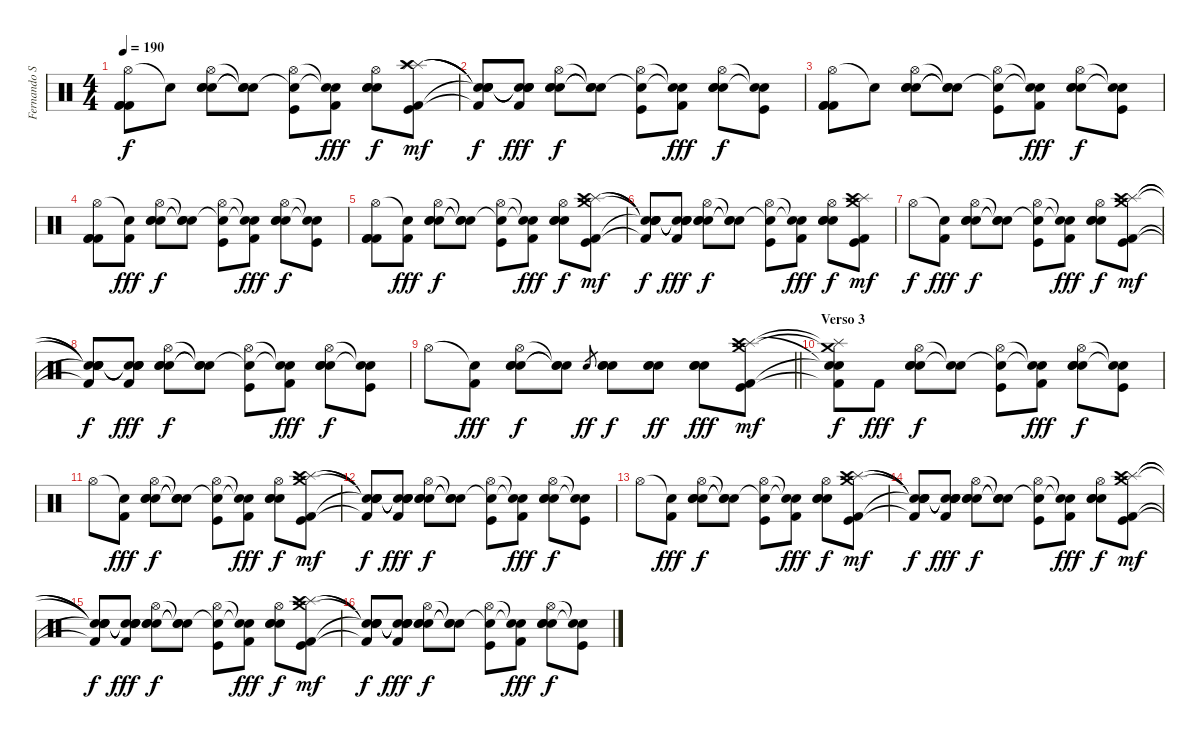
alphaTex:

\track ("Fernando Sarcella" "Fernando S") {instrument percussion}
\staff {score}
\articulation defaults
\ts (4 4)
\tempo 190
\clef neutral
\ks c
("Hi-Hat (open)" "Kick (hit) 2" "Kick (hit) 2" "Kick (hit) 2").8{dy f} "Snare (hit)"{t}.8 ("Hi-Hat (open)" "Electric Snare (hit)" "Electric Snare (hit)" "Electric Snare (hit)").8 ("Snare (hit)"{t} "Snare (hit)"{t} "Snare (hit)"{t}).8 ("Hi-Hat (open)" "Snare (hit)"{t} "Kick (hit)").8 ("Snare (hit)"{t} "Snare (hit)"{t} "Kick (hit) 2").8{dy fff} ("Hi-Hat (open)" "Electric Snare (hit)" "Electric Snare (hit)" "Electric Snare (hit)").8{dy f} ("Splash (hit)" "Splash (hit)" "Crash high (hit)" "Kick (hit) 2" "Kick (hit)").8{dy mf} |
("Snare (hit)"{t} "Snare (hit)"{t} "Snare (hit)"{t} "Snare (hit)"{t} "Kick (hit) 2"{t}).8{dy f} ("Snare (hit)"{t} "Snare (hit)"{t} "Snare (hit)"{t} "Snare (hit)"{t} "Kick (hit) 2").8{dy fff} ("Hi-Hat (open)" "Electric Snare (hit)" "Electric Snare (hit)" "Electric Snare (hit)").8{dy f} ("Snare (hit)"{t} "Snare (hit)"{t} "Snare (hit)"{t}).8 ("Hi-Hat (open)" "Snare (hit)"{t} "Kick (hit)").8 ("Snare (hit)"{t} "Snare (hit)"{t} "Kick (hit) 2").8{dy fff} ("Hi-Hat (open)" "Electric Snare (hit)" "Electric Snare (hit)" "Electric Snare (hit)").8{dy f} ("Snare (hit)"{t} "Snare (hit)"{t} "Kick (hit)").8 |
("Hi-Hat (open)" "Kick (hit) 2" "Kick (hit) 2" "Kick (hit) 2").8 "Snare (hit)"{t}.8 ("Hi-Hat (open)" "Electric Snare (hit)" "Electric Snare (hit)" "Electric Snare (hit)").8 ("Snare (hit)"{t} "Snare (hit)"{t} "Snare (hit)"{t}).8 ("Hi-Hat (open)" "Snare (hit)"{t} "Kick (hit)").8 ("Snare (hit)"{t} "Snare (hit)"{t} "Kick (hit) 2").8{dy fff} ("Hi-Hat (open)" "Electric Snare (hit)" "Electric Snare (hit)" "Electric Snare (hit)").8{dy f} ("Snare (hit)"{t} "Snare (hit)"{t} "Kick (hit)").8 |
("Hi-Hat (open)" "Kick (hit) 2" "Kick (hit) 2" "Kick (hit) 2").8 ("Snare (hit)"{t} "Kick (hit) 2").8{dy fff} ("Hi-Hat (open)" "Electric Snare (hit)" "Electric Snare (hit)" "Electric Snare (hit)").8{dy f} ("Snare (hit)"{t} "Snare (hit)"{t} "Snare (hit)"{t}).8 ("Hi-Hat (open)" "Snare (hit)"{t} "Kick (hit)").8 ("Snare (hit)"{t} "Snare (hit)"{t} "Kick (hit) 2").8{dy fff} ("Hi-Hat (open)" "Electric Snare (hit)" "Electric Snare (hit)" "Electric Snare (hit)").8{dy f} ("Snare (hit)"{t} "Snare (hit)"{t} "Kick (hit)").8 |
("Hi-Hat (open)" "Kick (hit) 2" "Kick (hit) 2" "Kick (hit) 2").8 ("Snare (hit)"{t} "Kick (hit) 2").8{dy fff} ("Hi-Hat (open)" "Electric Snare (hit)" "Electric Snare (hit)" "Electric Snare (hit)").8{dy f} ("Snare (hit)"{t} "Snare (hit)"{t} "Snare (hit)"{t}).8 ("Hi-Hat (open)" "Snare (hit)"{t} "Kick (hit)").8 ("Snare (hit)"{t} "Snare (hit)"{t} "Kick (hit) 2").8{dy fff} ("Hi-Hat (open)" "Electric Snare (hit)" "Electric Snare (hit)" "Electric Snare (hit)").8{dy f} ("Crash medium (hit)" "Splash (hit)" "Crash high (hit)" "Kick (hit) 2" "Kick (hit)").8{dy mf} |
("Snare (hit)"{t} "Snare (hit)"{t} "Snare (hit)"{t} "Snare (hit)"{t} "Kick (hit) 2"{t}).8{dy f} ("Snare (hit)"{t} "Snare (hit)"{t} "Snare (hit)"{t} "Snare (hit)"{t} "Kick (hit) 2").8{dy fff} ("Hi-Hat (open)" "Electric Snare (hit)" "Electric Snare (hit)" "Electric Snare (hit)").8{dy f} ("Snare (hit)"{t} "Snare (hit)"{t} "Snare (hit)"{t}).8 ("Hi-Hat (open)" "Snare (hit)"{t} "Kick (hit)").8 ("Snare (hit)"{t} "Snare (hit)"{t} "Kick (hit) 2").8{dy fff} ("Hi-Hat (open)" "Electric Snare (hit)" "Electric Snare (hit)" "Electric Snare (hit)").8{dy f} ("Crash medium (hit)" "Splash (hit)" "Crash high (hit)" "Kick (hit) 2" "Kick (hit)").8{dy mf} |
"Hi-Hat (open)".8{dy f} ("Snare (hit)"{t} "Kick (hit) 2").8{dy fff} ("Hi-Hat (open)" "Electric Snare (hit)" "Electric Snare (hit)" "Electric Snare (hit)").8{dy f} ("Snare (hit)"{t} "Snare (hit)"{t} "Snare (hit)"{t}).8 ("Hi-Hat (open)" "Snare (hit)"{t} "Kick (hit)").8 ("Snare (hit)"{t} "Snare (hit)"{t} "Kick (hit) 2").8{dy fff} ("Hi-Hat (open)" "Electric Snare (hit)" "Electric Snare (hit)" "Electric Snare (hit)").8{dy f} ("Crash medium (hit)" "Splash (hit)" "Crash high (hit)" "Kick (hit) 2" "Kick (hit)").8{dy mf} |
("Snare (hit)"{t} "Snare (hit)"{t} "Snare (hit)"{t} "Snare (hit)"{t} "Kick (hit) 2"{t}).8{dy f} ("Snare (hit)"{t} "Snare (hit)"{t} "Snare (hit)"{t} "Snare (hit)"{t} "Kick (hit) 2").8{dy fff} ("Hi-Hat (open)" "Electric Snare (hit)" "Electric Snare (hit)" "Electric Snare (hit)").8{dy f} ("Snare (hit)"{t} "Snare (hit)"{t} "Snare (hit)"{t}).8 ("Hi-Hat (open)" "Snare (hit)"{t} "Kick (hit)").8 ("Snare (hit)"{t} "Snare (hit)"{t} "Kick (hit) 2").8{dy fff} ("Hi-Hat (open)" "Electric Snare (hit)" "Electric Snare (hit)" "Electric Snare (hit)").8{dy f} ("Snare (hit)"{t} "Snare (hit)"{t} "Kick (hit)").8 |
\barLineRight lightlight "Hi-Hat (open)".8
("Snare (hit)"{t} "Kick (hit) 2").8{dy fff} ("Hi-Hat (open)" "Electric Snare (hit)" "Electric Snare (hit)" "Electric Snare (hit)").8{dy f} ("Snare (hit)"{t} "Snare (hit)"{t} "Snare (hit)"{t}).8 "Electric Snare (hit)".8{gr dy ff} ("Electric Snare (hit)" "Electric Snare (hit)" "Electric Snare (hit)").8{dy f} ("Electric Snare (hit)" "Electric Snare (hit)" "Electric Snare (hit)").8{dy ff} ("Electric Snare (hit)" "Electric Snare (hit)" "Electric Snare (hit)").8{dy fff} ("Crash medium (hit)" "Splash (hit)" "Crash high (hit)" "Kick (hit) 2" "Kick (hit)").8{dy mf} |
\section ("" "Verso 3")
("Crash medium (hit)"{t} "Splash (hit)"{t} "Snare (hit)"{t} "Snare (hit)"{t} "Kick (hit) 2"{t}).8{dy f} "Kick (hit) 2".8{dy fff} ("Hi-Hat (open)" "Electric Snare (hit)" "Electric Snare (hit)" "Electric Snare (hit)").8{dy f} ("Snare (hit)"{t} "Snare (hit)"{t}).8 ("Hi-Hat (open)" "Snare (hit)"{t} "Kick (hit)").8 ("Snare (hit)"{t} "Snare (hit)"{t} "Kick (hit) 2").8{dy fff} ("Hi-Hat (open)" "Electric Snare (hit)" "Electric Snare (hit)" "Electric Snare (hit)").8{dy f} ("Snare (hit)"{t} "Snare (hit)"{t} "Kick (hit)").8 |
"Hi-Hat (open)".8 ("Snare (hit)"{t} "Kick (hit) 2").8{dy fff} ("Hi-Hat (open)" "Electric Snare (hit)" "Electric Snare (hit)" "Electric Snare (hit)").8{dy f} ("Snare (hit)"{t} "Snare (hit)"{t} "Snare (hit)"{t}).8 ("Hi-Hat (open)" "Snare (hit)"{t} "Kick (hit)").8 ("Snare (hit)"{t} "Snare (hit)"{t} "Kick (hit) 2").8{dy fff} ("Hi-Hat (open)" "Electric Snare (hit)" "Electric Snare (hit)" "Electric Snare (hit)").8{dy f} ("Crash medium (hit)" "Splash (hit)" "Crash high (hit)" "Kick (hit) 2" "Kick (hit)").8{dy mf} |
("Snare (hit)"{t} "Snare (hit)"{t} "Snare (hit)"{t} "Snare (hit)"{t} "Kick (hit) 2"{t}).8{dy f} ("Snare (hit)"{t} "Snare (hit)"{t} "Snare (hit)"{t} "Snare (hit)"{t} "Kick (hit) 2").8{dy fff} ("Hi-Hat (open)" "Electric Snare (hit)" "Electric Snare (hit)" "Electric Snare (hit)").8{dy f} ("Snare (hit)"{t} "Snare (hit)"{t} "Snare (hit)"{t}).8 ("Hi-Hat (open)" "Snare (hit)"{t} "Kick (hit)").8 ("Snare (hit)"{t} "Snare (hit)"{t} "Kick (hit) 2").8{dy fff} ("Hi-Hat (open)" "Electric Snare (hit)" "Electric Snare (hit)" "Electric Snare (hit)").8{dy f} ("Snare (hit)"{t} "Snare (hit)"{t} "Kick (hit)").8 |
"Hi-Hat (open)".8 ("Snare (hit)"{t} "Kick (hit) 2").8{dy fff} ("Hi-Hat (open)" "Electric Snare (hit)" "Electric Snare (hit)" "Electric Snare (hit)").8{dy f} ("Snare (hit)"{t} "Snare (hit)"{t} "Snare (hit)"{t}).8 ("Hi-Hat (open)" "Snare (hit)"{t} "Kick (hit)").8 ("Snare (hit)"{t} "Snare (hit)"{t} "Kick (hit) 2").8{dy fff} ("Hi-Hat (open)" "Electric Snare (hit)" "Electric Snare (hit)" "Electric Snare (hit)").8{dy f} ("Crash medium (hit)" "Splash (hit)" "Crash high (hit)" "Kick (hit) 2" "Kick (hit)").8{dy mf} |
("Snare (hit)"{t} "Snare (hit)"{t} "Snare (hit)"{t} "Snare (hit)"{t} "Kick (hit) 2"{t}).8{dy f} ("Snare (hit)"{t} "Snare (hit)"{t} "Snare (hit)"{t} "Snare (hit)"{t} "Kick (hit) 2").8{dy fff} ("Hi-Hat (open)" "Electric Snare (hit)" "Electric Snare (hit)" "Electric Snare (hit)").8{dy f} ("Snare (hit)"{t} "Snare (hit)"{t} "Snare (hit)"{t}).8 ("Hi-Hat (open)" "Snare (hit)"{t} "Kick (hit)").8 ("Snare (hit)"{t} "Snare (hit)"{t} "Kick (hit) 2").8{dy fff} ("Hi-Hat (open)" "Electric Snare (hit)" "Electric Snare (hit)" "Electric Snare (hit)").8{dy f} ("Crash medium (hit)" "Splash (hit)" "Crash high (hit)" "Kick (hit) 2" "Kick (hit)").8{dy mf} |
("Snare (hit)"{t} "Snare (hit)"{t} "Snare (hit)"{t} "Snare (hit)"{t} "Kick (hit) 2"{t}).8{dy f} ("Snare (hit)"{t} "Snare (hit)"{t} "Snare (hit)"{t} "Snare (hit)"{t} "Kick (hit) 2").8{dy fff} ("Hi-Hat (open)" "Electric Snare (hit)" "Electric Snare (hit)" "Electric Snare (hit)").8{dy f} ("Snare (hit)"{t} "Snare (hit)"{t} "Snare (hit)"{t}).8 ("Hi-Hat (open)" "Snare (hit)"{t} "Kick (hit)").8 ("Snare (hit)"{t} "Snare (hit)"{t} "Kick (hit) 2").8{dy fff} ("Hi-Hat (open)" "Electric Snare (hit)" "Electric Snare (hit)" "Electric Snare (hit)").8{dy f} ("Crash medium (hit)" "Splash (hit)" "Crash high (hit)" "Kick (hit) 2" "Kick (hit)").8{dy mf} |
("Snare (hit)"{t} "Snare (hit)"{t} "Snare (hit)"{t} "Snare (hit)"{t} "Kick (hit) 2"{t}).8{dy f} ("Snare (hit)"{t} "Snare (hit)"{t} "Snare (hit)"{t} "Snare (hit)"{t} "Kick (hit) 2").8{dy fff} ("Hi-Hat (open)" "Electric Snare (hit)" "Electric Snare (hit)" "Electric Snare (hit)").8{dy f} ("Snare (hit)"{t} "Snare (hit)"{t} "Snare (hit)"{t}).8 ("Hi-Hat (open)" "Snare (hit)"{t} "Kick (hit)").8 ("Snare (hit)"{t} "Snare (hit)"{t} "Kick (hit) 2").8{dy fff} ("Hi-Hat (open)" "Electric Snare (hit)" "Electric Snare (hit)" "Electric Snare (hit)").8{dy f} ("Snare (hit)"{t} "Snare (hit)"{t} "Kick (hit)").8
